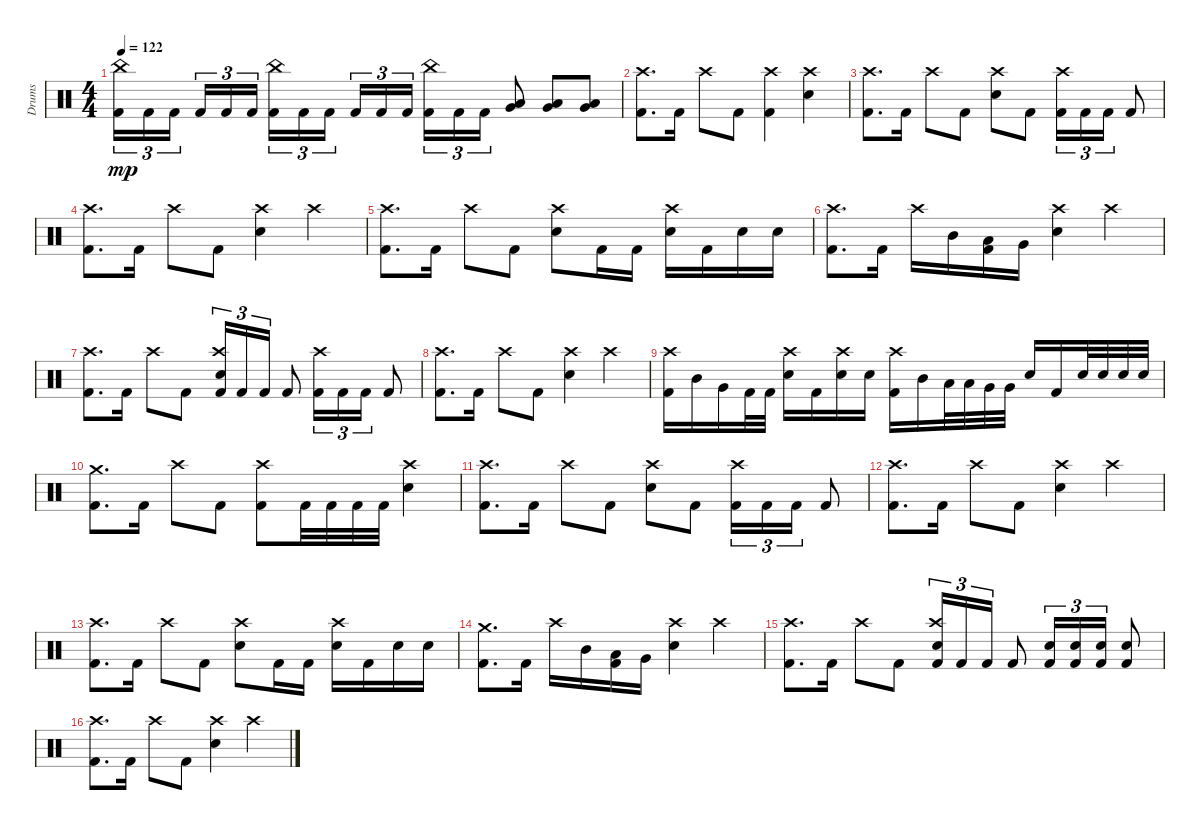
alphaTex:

\track ("Drums" "Drums") {instrument percussion}
\staff {score}
\articulation defaults
\ts (4 4)
\tempo 122
\clef neutral
\ks c
("China (hit)" "Kick (hit) 2").16{tu (3 2) dy mp} "Kick (hit) 2".16{tu (3 2)} "Kick (hit) 2".16{tu (3 2) beam splitsecondary} "Kick (hit) 2".16{tu (3 2)} "Kick (hit) 2".16{tu (3 2)} "Kick (hit) 2".16{tu (3 2)} ("China (hit)" "Kick (hit) 2").16{tu (3 2)} "Kick (hit) 2".16{tu (3 2)} "Kick (hit) 2".16{tu (3 2) beam splitsecondary} "Kick (hit) 2".16{tu (3 2)} "Kick (hit) 2".16{tu (3 2)} "Kick (hit) 2".16{tu (3 2)} ("China (hit)" "Kick (hit) 2").16{tu (3 2)} "Kick (hit) 2".16{tu (3 2)} "Kick (hit) 2".16{tu (3 2)} ("Very Low Tom (hit)" "Low Floor Tom (hit)").8 ("Very Low Tom (hit)" "Low Floor Tom (hit)").8 ("Very Low Tom (hit)" "Low Floor Tom (hit)").8 |
("Crash high (hit)" "Kick (hit) 2").8{d} "Kick (hit) 2".16 "Crash high (hit)".8 "Kick (hit) 2".8 ("Crash high (hit)" "Kick (hit) 2").4 ("Electric Snare (hit)" "Crash high (hit)").4 |
("Crash high (hit)" "Kick (hit) 2").8{d} "Kick (hit) 2".16 "Crash high (hit)".8 "Kick (hit) 2".8 ("Crash high (hit)" "Electric Snare (hit)").8 "Kick (hit) 2".8 ("Crash high (hit)" "Kick (hit) 2").16{tu (3 2)} "Kick (hit) 2".16{tu (3 2)} "Kick (hit) 2".16{tu (3 2)} "Kick (hit) 2".8 |
("Crash high (hit)" "Kick (hit) 2").8{d} "Kick (hit) 2".16 "Crash high (hit)".8 "Kick (hit) 2".8 ("Crash high (hit)" "Electric Snare (hit)").4 "Crash high (hit)".4 |
("Crash high (hit)" "Kick (hit) 2").8{d} "Kick (hit) 2".16 "Crash high (hit)".8 "Kick (hit) 2".8 ("Crash high (hit)" "Electric Snare (hit)").8 "Kick (hit) 2".16 "Kick (hit) 2".16 ("Crash high (hit)" "Electric Snare (hit)").16 "Kick (hit) 2".16 "Electric Snare (hit)".16 "Electric Snare (hit)".16 |
("Crash high (hit)" "Kick (hit) 2").8{d} "Kick (hit) 2".16 "Crash high (hit)".16 "Mid Tom (hit)".16 ("Low Tom (hit)" "Kick (hit) 2").16 "Very Low Tom (hit)".16 ("Crash high (hit)" "Electric Snare (hit)").4 "Crash high (hit)".4 |
("Crash high (hit)" "Kick (hit) 2").8{d} "Kick (hit) 2".16 "Crash high (hit)".8 "Kick (hit) 2".8 ("Crash high (hit)" "Electric Snare (hit)" "Kick (hit) 2").16{tu (3 2)} "Kick (hit) 2".16{tu (3 2)} "Kick (hit) 2".16{tu (3 2)} "Kick (hit) 2".8 ("Crash high (hit)" "Kick (hit) 2").16{tu (3 2)} "Kick (hit) 2".16{tu (3 2)} "Kick (hit) 2".16{tu (3 2)} "Kick (hit) 2".8 |
("Crash high (hit)" "Kick (hit) 2").8{d} "Kick (hit) 2".16 "Crash high (hit)".8 "Kick (hit) 2".8 ("Crash high (hit)" "Electric Snare (hit)").4 "Crash high (hit)".4 |
("Crash high (hit)" "Kick (hit) 2").16 "Mid Tom (hit)".16 "Very Low Tom (hit)".16 "Kick (hit) 2".32 "Kick (hit) 2".32 ("Crash high (hit)" "Electric Snare (hit)").16 "Kick (hit) 2".16 ("Crash high (hit)" "Electric Snare (hit)").16 "Electric Snare (hit)".16 ("Crash high (hit)" "Kick (hit) 2").16 "Mid Tom (hit)".16 "Low Tom (hit)".32 "Low Tom (hit)".32 "Very Low Tom (hit)".32 "Very Low Tom (hit)".32 "Electric Snare (hit)".16 "Kick (hit) 2".16 "Electric Snare (hit)".32 "Electric Snare (hit)".32 "Electric Snare (hit)".32 "Electric Snare (hit)".32 |
("Crash medium (hit)" "Kick (hit) 2").8{d} "Kick (hit) 2".16 "Crash high (hit)".8 "Kick (hit) 2".8 ("Crash high (hit)" "Kick (hit) 2").8 "Kick (hit) 2".32 "Kick (hit) 2".32 "Kick (hit) 2".32 "Kick (hit) 2".32 ("Electric Snare (hit)" "Crash high (hit)").4 |
("Crash high (hit)" "Kick (hit) 2").8{d} "Kick (hit) 2".16 "Crash high (hit)".8 "Kick (hit) 2".8 ("Crash high (hit)" "Electric Snare (hit)").8 "Kick (hit) 2".8 ("Crash high (hit)" "Kick (hit) 2").16{tu (3 2)} "Kick (hit) 2".16{tu (3 2)} "Kick (hit) 2".16{tu (3 2)} "Kick (hit) 2".8 |
("Crash high (hit)" "Kick (hit) 2").8{d} "Kick (hit) 2".16 "Crash high (hit)".8 "Kick (hit) 2".8 ("Crash high (hit)" "Electric Snare (hit)").4 "Crash high (hit)".4 |
("Crash high (hit)" "Kick (hit) 2").8{d} "Kick (hit) 2".16 "Crash high (hit)".8 "Kick (hit) 2".8 ("Crash high (hit)" "Electric Snare (hit)").8 "Kick (hit) 2".16 "Kick (hit) 2".16 ("Crash high (hit)" "Electric Snare (hit)").16 "Kick (hit) 2".16 "Electric Snare (hit)".16 "Electric Snare (hit)".16 |
("Crash medium (hit)" "Kick (hit) 2").8{d} "Kick (hit) 2".16 "Crash high (hit)".16 "Mid Tom (hit)".16 ("Low Tom (hit)" "Kick (hit) 2").16 "Very Low Tom (hit)".16 ("Crash high (hit)" "Electric Snare (hit)").4 "Crash high (hit)".4 |
("Crash high (hit)" "Kick (hit) 2").8{d} "Kick (hit) 2".16 "Crash high (hit)".8 "Kick (hit) 2".8 ("Crash high (hit)" "Electric Snare (hit)" "Kick (hit) 2").16{tu (3 2)} "Kick (hit) 2".16{tu (3 2)} "Kick (hit) 2".16{tu (3 2)} "Kick (hit) 2".8 ("Electric Snare (hit)" "Kick (hit) 2").16{tu (3 2)} ("Electric Snare (hit)" "Kick (hit) 2").16{tu (3 2)} ("Electric Snare (hit)" "Kick (hit) 2").16{tu (3 2)} ("Electric Snare (hit)" "Kick (hit) 2").8 |
("Crash high (hit)" "Kick (hit) 2").8{d} "Kick (hit) 2".16 "Crash high (hit)".8 "Kick (hit) 2".8 ("Crash high (hit)" "Electric Snare (hit)").4 "Crash high (hit)".4
